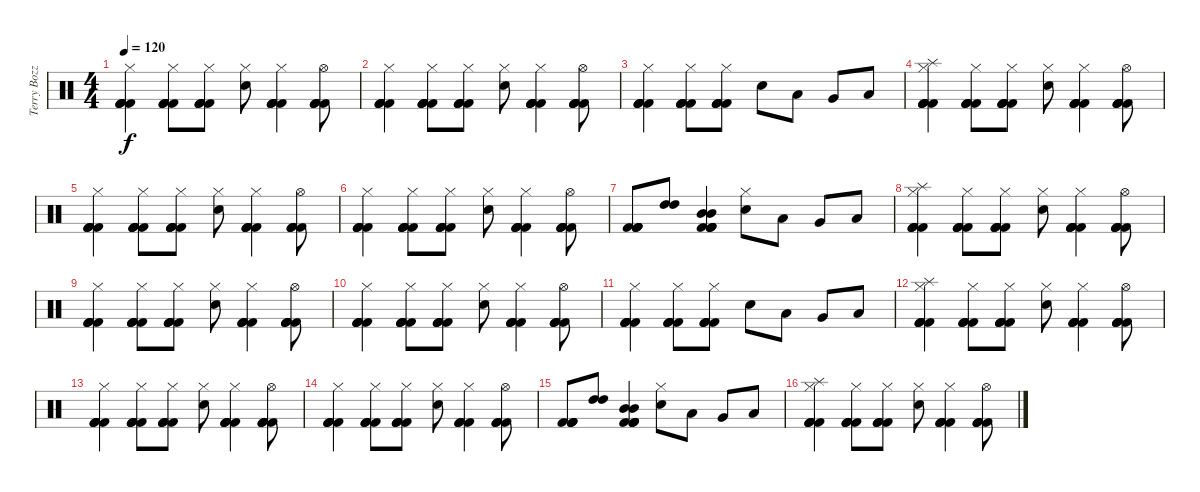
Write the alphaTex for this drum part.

\track ("Terry Bozzio" "Terry Bozz") {instrument percussion}
\staff {score}
\articulation defaults
\ts (4 4)
\tempo 120
\clef neutral
\ks c
("Hi-Hat (closed)" "Kick (hit) 2" "Kick (hit) 2" "Kick (hit) 2" "Kick (hit) 2").4{dy f} ("Hi-Hat (closed)" "Kick (hit) 2" "Kick (hit) 2" "Kick (hit) 2" "Kick (hit) 2").8 ("Hi-Hat (closed)" "Kick (hit) 2" "Kick (hit) 2" "Kick (hit) 2" "Kick (hit) 2").8 ("Hi-Hat (closed)" "Snare (hit) 2").8 ("Hi-Hat (closed)" "Kick (hit) 2" "Kick (hit) 2" "Kick (hit) 2" "Kick (hit) 2").4 ("Hi-Hat (open)" "Kick (hit) 2" "Kick (hit) 2" "Kick (hit) 2" "Kick (hit) 2").8 |
("Hi-Hat (closed)" "Kick (hit) 2" "Kick (hit) 2" "Kick (hit) 2" "Kick (hit) 2").4 ("Hi-Hat (closed)" "Kick (hit) 2" "Kick (hit) 2" "Kick (hit) 2" "Kick (hit) 2").8 ("Hi-Hat (closed)" "Kick (hit) 2" "Kick (hit) 2" "Kick (hit) 2" "Kick (hit) 2").8 ("Hi-Hat (closed)" "Snare (hit) 2").8 ("Hi-Hat (closed)" "Kick (hit) 2" "Kick (hit) 2" "Kick (hit) 2" "Kick (hit) 2").4 ("Hi-Hat (open)" "Kick (hit) 2" "Kick (hit) 2" "Kick (hit) 2" "Kick (hit) 2").8 |
("Hi-Hat (closed)" "Kick (hit) 2" "Kick (hit) 2" "Kick (hit) 2" "Kick (hit) 2").4 ("Hi-Hat (closed)" "Kick (hit) 2" "Kick (hit) 2" "Kick (hit) 2" "Kick (hit) 2").8 ("Hi-Hat (closed)" "Kick (hit) 2" "Kick (hit) 2" "Kick (hit) 2" "Kick (hit) 2").8 "Snare (hit) 2".8 "Low Tom (hit)".8 "Very Low Tom (hit)".8 "Low Floor Tom (hit)".8 |
("Splash (hit)" "Hi-Hat (closed)" "Kick (hit) 2" "Kick (hit) 2" "Kick (hit) 2" "Kick (hit) 2").4 ("Hi-Hat (closed)" "Kick (hit) 2" "Kick (hit) 2" "Kick (hit) 2" "Kick (hit) 2").8 ("Hi-Hat (closed)" "Kick (hit) 2" "Kick (hit) 2" "Kick (hit) 2" "Kick (hit) 2").8 ("Hi-Hat (closed)" "Snare (hit) 2").8 ("Hi-Hat (closed)" "Kick (hit) 2" "Kick (hit) 2" "Kick (hit) 2" "Kick (hit) 2").4 ("Hi-Hat (open)" "Kick (hit) 2" "Kick (hit) 2" "Kick (hit) 2" "Kick (hit) 2").8 |
("Hi-Hat (closed)" "Kick (hit) 2" "Kick (hit) 2" "Kick (hit) 2" "Kick (hit) 2").4 ("Hi-Hat (closed)" "Kick (hit) 2" "Kick (hit) 2" "Kick (hit) 2" "Kick (hit) 2").8 ("Hi-Hat (closed)" "Kick (hit) 2" "Kick (hit) 2" "Kick (hit) 2" "Kick (hit) 2").8 ("Hi-Hat (closed)" "Snare (hit) 2").8 ("Hi-Hat (closed)" "Kick (hit) 2" "Kick (hit) 2" "Kick (hit) 2" "Kick (hit) 2").4 ("Hi-Hat (open)" "Kick (hit) 2" "Kick (hit) 2" "Kick (hit) 2" "Kick (hit) 2").8 |
("Hi-Hat (closed)" "Kick (hit) 2" "Kick (hit) 2" "Kick (hit) 2" "Kick (hit) 2").4 ("Hi-Hat (closed)" "Kick (hit) 2" "Kick (hit) 2" "Kick (hit) 2" "Kick (hit) 2").8 ("Hi-Hat (closed)" "Kick (hit) 2" "Kick (hit) 2" "Kick (hit) 2" "Kick (hit) 2").8 ("Hi-Hat (closed)" "Snare (hit) 2").8 ("Hi-Hat (closed)" "Kick (hit) 2" "Kick (hit) 2" "Kick (hit) 2" "Kick (hit) 2").4 ("Hi-Hat (open)" "Kick (hit) 2" "Kick (hit) 2" "Kick (hit) 2" "Kick (hit) 2").8 |
("Kick (hit) 2" "Kick (hit) 2" "Kick (hit) 2" "Kick (hit) 2").8 ("High Tom (hit)" "High Tom (hit)").8 ("Mid Tom (hit)" "Mid Tom (hit)" "Kick (hit) 2" "Kick (hit) 2" "Kick (hit) 2" "Kick (hit) 2").4 ("Hi-Hat (closed)" "Snare (hit) 2").8 "Low Tom (hit)".8 "Very Low Tom (hit)".8 "Low Floor Tom (hit)".8 |
("Splash (hit)" "Hi-Hat (closed)" "Kick (hit) 2" "Kick (hit) 2" "Kick (hit) 2" "Kick (hit) 2").4 ("Hi-Hat (closed)" "Kick (hit) 2" "Kick (hit) 2" "Kick (hit) 2" "Kick (hit) 2").8 ("Hi-Hat (closed)" "Kick (hit) 2" "Kick (hit) 2" "Kick (hit) 2" "Kick (hit) 2").8 ("Hi-Hat (closed)" "Snare (hit) 2").8 ("Hi-Hat (closed)" "Kick (hit) 2" "Kick (hit) 2" "Kick (hit) 2" "Kick (hit) 2").4 ("Hi-Hat (open)" "Kick (hit) 2" "Kick (hit) 2" "Kick (hit) 2" "Kick (hit) 2").8 |
("Hi-Hat (closed)" "Kick (hit) 2" "Kick (hit) 2" "Kick (hit) 2" "Kick (hit) 2").4 ("Hi-Hat (closed)" "Kick (hit) 2" "Kick (hit) 2" "Kick (hit) 2" "Kick (hit) 2").8 ("Hi-Hat (closed)" "Kick (hit) 2" "Kick (hit) 2" "Kick (hit) 2" "Kick (hit) 2").8 ("Hi-Hat (closed)" "Snare (hit) 2").8 ("Hi-Hat (closed)" "Kick (hit) 2" "Kick (hit) 2" "Kick (hit) 2" "Kick (hit) 2").4 ("Hi-Hat (open)" "Kick (hit) 2" "Kick (hit) 2" "Kick (hit) 2" "Kick (hit) 2").8 |
("Hi-Hat (closed)" "Kick (hit) 2" "Kick (hit) 2" "Kick (hit) 2" "Kick (hit) 2").4 ("Hi-Hat (closed)" "Kick (hit) 2" "Kick (hit) 2" "Kick (hit) 2" "Kick (hit) 2").8 ("Hi-Hat (closed)" "Kick (hit) 2" "Kick (hit) 2" "Kick (hit) 2" "Kick (hit) 2").8 ("Hi-Hat (closed)" "Snare (hit) 2").8 ("Hi-Hat (closed)" "Kick (hit) 2" "Kick (hit) 2" "Kick (hit) 2" "Kick (hit) 2").4 ("Hi-Hat (open)" "Kick (hit) 2" "Kick (hit) 2" "Kick (hit) 2" "Kick (hit) 2").8 |
("Hi-Hat (closed)" "Kick (hit) 2" "Kick (hit) 2" "Kick (hit) 2" "Kick (hit) 2").4 ("Hi-Hat (closed)" "Kick (hit) 2" "Kick (hit) 2" "Kick (hit) 2" "Kick (hit) 2").8 ("Hi-Hat (closed)" "Kick (hit) 2" "Kick (hit) 2" "Kick (hit) 2" "Kick (hit) 2").8 "Snare (hit) 2".8 "Low Tom (hit)".8 "Very Low Tom (hit)".8 "Low Floor Tom (hit)".8 |
("Splash (hit)" "Hi-Hat (closed)" "Kick (hit) 2" "Kick (hit) 2" "Kick (hit) 2" "Kick (hit) 2").4 ("Hi-Hat (closed)" "Kick (hit) 2" "Kick (hit) 2" "Kick (hit) 2" "Kick (hit) 2").8 ("Hi-Hat (closed)" "Kick (hit) 2" "Kick (hit) 2" "Kick (hit) 2" "Kick (hit) 2").8 ("Hi-Hat (closed)" "Snare (hit) 2").8 ("Hi-Hat (closed)" "Kick (hit) 2" "Kick (hit) 2" "Kick (hit) 2" "Kick (hit) 2").4 ("Hi-Hat (open)" "Kick (hit) 2" "Kick (hit) 2" "Kick (hit) 2" "Kick (hit) 2").8 |
("Hi-Hat (closed)" "Kick (hit) 2" "Kick (hit) 2" "Kick (hit) 2" "Kick (hit) 2").4 ("Hi-Hat (closed)" "Kick (hit) 2" "Kick (hit) 2" "Kick (hit) 2" "Kick (hit) 2").8 ("Hi-Hat (closed)" "Kick (hit) 2" "Kick (hit) 2" "Kick (hit) 2" "Kick (hit) 2").8 ("Hi-Hat (closed)" "Snare (hit) 2").8 ("Hi-Hat (closed)" "Kick (hit) 2" "Kick (hit) 2" "Kick (hit) 2" "Kick (hit) 2").4 ("Hi-Hat (open)" "Kick (hit) 2" "Kick (hit) 2" "Kick (hit) 2" "Kick (hit) 2").8 |
("Hi-Hat (closed)" "Kick (hit) 2" "Kick (hit) 2" "Kick (hit) 2" "Kick (hit) 2").4 ("Hi-Hat (closed)" "Kick (hit) 2" "Kick (hit) 2" "Kick (hit) 2" "Kick (hit) 2").8 ("Hi-Hat (closed)" "Kick (hit) 2" "Kick (hit) 2" "Kick (hit) 2" "Kick (hit) 2").8 ("Hi-Hat (closed)" "Snare (hit) 2").8 ("Hi-Hat (closed)" "Kick (hit) 2" "Kick (hit) 2" "Kick (hit) 2" "Kick (hit) 2").4 ("Hi-Hat (open)" "Kick (hit) 2" "Kick (hit) 2" "Kick (hit) 2" "Kick (hit) 2").8 |
("Kick (hit) 2" "Kick (hit) 2" "Kick (hit) 2" "Kick (hit) 2").8 ("High Tom (hit)" "High Tom (hit)").8 ("Mid Tom (hit)" "Mid Tom (hit)" "Kick (hit) 2" "Kick (hit) 2" "Kick (hit) 2" "Kick (hit) 2").4 ("Hi-Hat (closed)" "Snare (hit) 2").8 "Low Tom (hit)".8 "Very Low Tom (hit)".8 "Low Floor Tom (hit)".8 |
("Splash (hit)" "Hi-Hat (closed)" "Kick (hit) 2" "Kick (hit) 2" "Kick (hit) 2" "Kick (hit) 2").4 ("Hi-Hat (closed)" "Kick (hit) 2" "Kick (hit) 2" "Kick (hit) 2" "Kick (hit) 2").8 ("Hi-Hat (closed)" "Kick (hit) 2" "Kick (hit) 2" "Kick (hit) 2" "Kick (hit) 2").8 ("Hi-Hat (closed)" "Snare (hit) 2").8 ("Hi-Hat (closed)" "Kick (hit) 2" "Kick (hit) 2" "Kick (hit) 2" "Kick (hit) 2").4 ("Hi-Hat (open)" "Kick (hit) 2" "Kick (hit) 2" "Kick (hit) 2" "Kick (hit) 2").8
